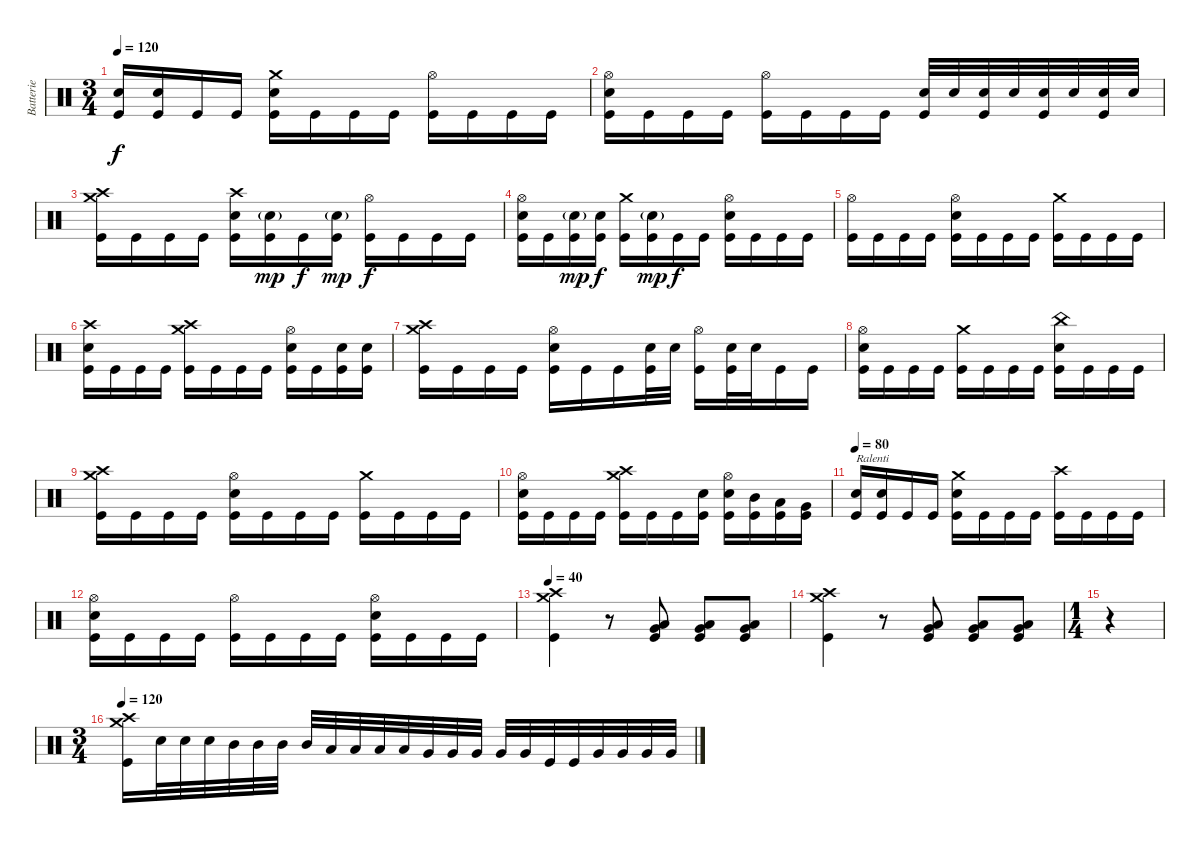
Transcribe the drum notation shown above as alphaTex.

\track ("Batterie" "Batterie") {instrument percussion}
\staff {score}
\articulation defaults
\ts (3 4)
\tempo 120
\clef neutral
\ks c
("Electric Snare (hit)" "Kick (hit)").16{dy f} ("Electric Snare (hit)" "Kick (hit)").16 "Kick (hit)".16 "Kick (hit)".16 ("Crash medium (hit)" "Electric Snare (hit)" "Kick (hit)").16 "Kick (hit)".16 "Kick (hit)".16 "Kick (hit)".16 ("Hi-Hat (open)" "Kick (hit)").16 "Kick (hit)".16 "Kick (hit)".16 "Kick (hit)".16 |
("Hi-Hat (open)" "Electric Snare (hit)" "Kick (hit)").16 "Kick (hit)".16 "Kick (hit)".16 "Kick (hit)".16 ("Hi-Hat (open)" "Kick (hit)").16 "Kick (hit)".16 "Kick (hit)".16 "Kick (hit)".16 ("Electric Snare (hit)" "Kick (hit)").32 "Electric Snare (hit)".32 ("Electric Snare (hit)" "Kick (hit)").32 "Electric Snare (hit)".32 ("Electric Snare (hit)" "Kick (hit)").32 "Electric Snare (hit)".32 ("Electric Snare (hit)" "Kick (hit)").32 "Electric Snare (hit)".32 |
("Crash high (hit)" "Crash medium (hit)" "Kick (hit)").16 "Kick (hit)".16 "Kick (hit)".16 "Kick (hit)".16 ("Crash high (hit)" "Electric Snare (hit)" "Kick (hit)").16 ("Electric Snare (hit)"{g} "Kick (hit)").16{dy mp} "Kick (hit)".16{dy f} ("Electric Snare (hit)"{g} "Kick (hit)").16{dy mp} ("Hi-Hat (open)" "Kick (hit)").16{dy f} "Kick (hit)".16 "Kick (hit)".16 "Kick (hit)".16 |
("Hi-Hat (open)" "Electric Snare (hit)" "Kick (hit)").16 "Kick (hit)".16 ("Electric Snare (hit)"{g} "Kick (hit)").16{dy mp} ("Electric Snare (hit)" "Kick (hit)").16{dy f} ("Crash medium (hit)" "Kick (hit)").16 ("Electric Snare (hit)"{g} "Kick (hit)").16{dy mp} "Kick (hit)".16{dy f} "Kick (hit)".16 ("Hi-Hat (open)" "Electric Snare (hit)" "Kick (hit)").16 "Kick (hit)".16 "Kick (hit)".16 "Kick (hit)".16 |
("Hi-Hat (open)" "Kick (hit)").16 "Kick (hit)".16 "Kick (hit)".16 "Kick (hit)".16 ("Hi-Hat (open)" "Electric Snare (hit)" "Kick (hit)").16 "Kick (hit)".16 "Kick (hit)".16 "Kick (hit)".16 ("Crash medium (hit)" "Kick (hit)").16 "Kick (hit)".16 "Kick (hit)".16 "Kick (hit)".16 |
("Crash high (hit)" "Electric Snare (hit)" "Kick (hit)").16 "Kick (hit)".16 "Kick (hit)".16 "Kick (hit)".16 ("Crash high (hit)" "Crash medium (hit)" "Kick (hit)").16 "Kick (hit)".16 "Kick (hit)".16 "Kick (hit)".16 ("Hi-Hat (open)" "Electric Snare (hit)" "Kick (hit)").16 "Kick (hit)".16 ("Electric Snare (hit)" "Kick (hit)").16 ("Electric Snare (hit)" "Kick (hit)").16 |
("Crash high (hit)" "Crash medium (hit)" "Kick (hit)").16 "Kick (hit)".16 "Kick (hit)".16 "Kick (hit)".16 ("Hi-Hat (open)" "Electric Snare (hit)" "Kick (hit)").16 "Kick (hit)".16 "Kick (hit)".16 ("Electric Snare (hit)" "Kick (hit)").32 "Electric Snare (hit)".32 ("Hi-Hat (open)" "Kick (hit)").16 ("Electric Snare (hit)" "Kick (hit)").32 "Electric Snare (hit)".32 "Kick (hit)".16 "Kick (hit)".16 |
("Hi-Hat (open)" "Electric Snare (hit)" "Kick (hit)").16 "Kick (hit)".16 "Kick (hit)".16 "Kick (hit)".16 ("Crash medium (hit)" "Kick (hit)").16 "Kick (hit)".16 "Kick (hit)".16 "Kick (hit)".16 ("China (hit)" "Electric Snare (hit)" "Kick (hit)").16 "Kick (hit)".16 "Kick (hit)".16 "Kick (hit)".16 |
("Crash high (hit)" "Crash medium (hit)" "Kick (hit)").16 "Kick (hit)".16 "Kick (hit)".16 "Kick (hit)".16 ("Hi-Hat (open)" "Electric Snare (hit)" "Kick (hit)").16 "Kick (hit)".16 "Kick (hit)".16 "Kick (hit)".16 ("Crash medium (hit)" "Kick (hit)").16 "Kick (hit)".16 "Kick (hit)".16 "Kick (hit)".16 |
("Hi-Hat (open)" "Electric Snare (hit)" "Kick (hit)").16 "Kick (hit)".16 "Kick (hit)".16 "Kick (hit)".16 ("Crash high (hit)" "Crash medium (hit)" "Kick (hit)").16 "Kick (hit)".16 "Kick (hit)".16 ("Electric Snare (hit)" "Kick (hit)").16 ("Hi-Hat (open)" "Electric Snare (hit)" "Kick (hit)").16 ("Mid Tom (hit)" "Kick (hit)").16 ("Low Tom (hit)" "Kick (hit)").16 ("Very Low Tom (hit)" "Kick (hit)").16 |
\tempo 80
("Electric Snare (hit)" "Kick (hit)").16{txt "Ralenti"} ("Electric Snare (hit)" "Kick (hit)").16 "Kick (hit)".16 "Kick (hit)".16 ("Crash medium (hit)" "Electric Snare (hit)" "Kick (hit)").16 "Kick (hit)".16 "Kick (hit)".16 "Kick (hit)".16 ("Crash high (hit)" "Kick (hit)").16 "Kick (hit)".16 "Kick (hit)".16 "Kick (hit)".16 |
("Hi-Hat (open)" "Electric Snare (hit)" "Kick (hit)").16 "Kick (hit)".16 "Kick (hit)".16 "Kick (hit)".16 ("Hi-Hat (open)" "Kick (hit)").16 "Kick (hit)".16 "Kick (hit)".16 "Kick (hit)".16 ("Hi-Hat (open)" "Electric Snare (hit)" "Kick (hit)").16 "Kick (hit)".16 "Kick (hit)".16 "Kick (hit)".16 |
\tempo 40
("Crash medium (hit)" "Crash high (hit)" "Kick (hit)").4 r.8 ("Low Floor Tom (hit)" "Very Low Tom (hit)" "Kick (hit)").8 ("Low Floor Tom (hit)" "Very Low Tom (hit)" "Kick (hit)").8 ("Low Floor Tom (hit)" "Very Low Tom (hit)" "Kick (hit)").8 |
("Crash medium (hit)" "Crash high (hit)" "Kick (hit)").4 r.8 ("Low Floor Tom (hit)" "Very Low Tom (hit)" "Kick (hit)").8 ("Low Floor Tom (hit)" "Very Low Tom (hit)" "Kick (hit)").8 ("Low Floor Tom (hit)" "Very Low Tom (hit)" "Kick (hit)").8 |
\ts (1 4)
r.4 |
\ts (3 4)
\tempo 120
("Crash medium (hit)" "Crash high (hit)" "Kick (hit)").16 "Electric Snare (hit)".32 "Electric Snare (hit)".32 "Electric Snare (hit)".32 "Mid Tom (hit)".32 "Mid Tom (hit)".32 "Mid Tom (hit)".32 "Mid Tom (hit)".32 "Low Tom (hit)".32 "Low Tom (hit)".32 "Low Tom (hit)".32 "Low Tom (hit)".32 "Very Low Tom (hit)".32 "Very Low Tom (hit)".32 "Very Low Tom (hit)".32 "Very Low Tom (hit)".32 "Very Low Tom (hit)".32 "Kick (hit)".32 "Kick (hit)".32 "Very Low Tom (hit)".32 "Very Low Tom (hit)".32 "Very Low Tom (hit)".32 "Very Low Tom (hit)".32
